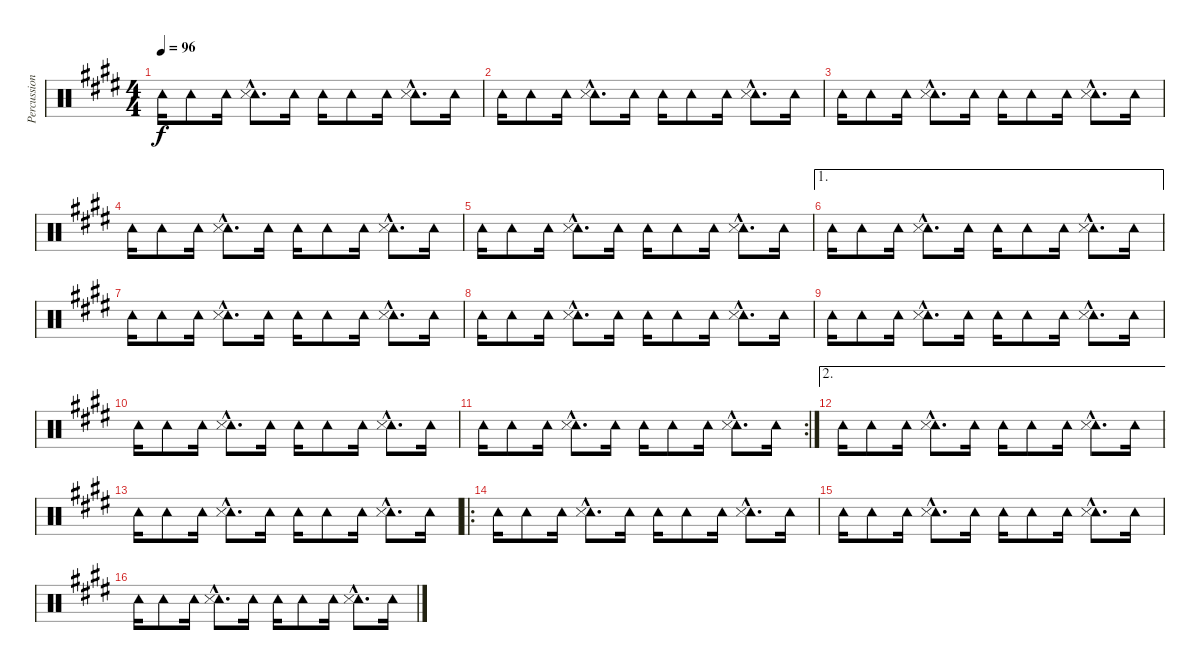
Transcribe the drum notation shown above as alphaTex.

\track ("Percussions" "Percussion") {instrument percussion}
\staff {score}
\articulation defaults
\ts (4 4)
\tempo 96
\clef neutral
\ks e "Tambourine (hit)".16{dy f} "Tambourine (hit)".8 "Tambourine (hit)".16
("Tambourine (hit)"{hac} "Snare (side stick) 3"{hac}).8{d} "Tambourine (hit)".16 "Tambourine (hit)".16 "Tambourine (hit)".8 "Tambourine (hit)".16 ("Tambourine (hit)"{hac} "Snare (side stick) 3"{hac}).8{d} "Tambourine (hit)".16 |
"Tambourine (hit)".16 "Tambourine (hit)".8 "Tambourine (hit)".16 ("Tambourine (hit)"{hac} "Snare (side stick) 3"{hac}).8{d} "Tambourine (hit)".16 "Tambourine (hit)".16 "Tambourine (hit)".8 "Tambourine (hit)".16 ("Tambourine (hit)"{hac} "Snare (side stick) 3"{hac}).8{d} "Tambourine (hit)".16 |
"Tambourine (hit)".16 "Tambourine (hit)".8 "Tambourine (hit)".16 ("Tambourine (hit)"{hac} "Snare (side stick) 3"{hac}).8{d} "Tambourine (hit)".16 "Tambourine (hit)".16 "Tambourine (hit)".8 "Tambourine (hit)".16 ("Tambourine (hit)"{hac} "Snare (side stick) 3"{hac}).8{d} "Tambourine (hit)".16 |
"Tambourine (hit)".16 "Tambourine (hit)".8 "Tambourine (hit)".16 ("Tambourine (hit)"{hac} "Snare (side stick) 3"{hac}).8{d} "Tambourine (hit)".16 "Tambourine (hit)".16 "Tambourine (hit)".8 "Tambourine (hit)".16 ("Tambourine (hit)"{hac} "Snare (side stick) 3"{hac}).8{d} "Tambourine (hit)".16 |
"Tambourine (hit)".16 "Tambourine (hit)".8 "Tambourine (hit)".16 ("Tambourine (hit)"{hac} "Snare (side stick) 3"{hac}).8{d} "Tambourine (hit)".16 "Tambourine (hit)".16 "Tambourine (hit)".8 "Tambourine (hit)".16 ("Tambourine (hit)"{hac} "Snare (side stick) 3"{hac}).8{d} "Tambourine (hit)".16 |
\ae 1 "Tambourine (hit)".16 "Tambourine (hit)".8 "Tambourine (hit)".16
("Tambourine (hit)"{hac} "Snare (side stick) 3"{hac}).8{d} "Tambourine (hit)".16 "Tambourine (hit)".16 "Tambourine (hit)".8 "Tambourine (hit)".16 ("Tambourine (hit)"{hac} "Snare (side stick) 3"{hac}).8{d} "Tambourine (hit)".16 |
"Tambourine (hit)".16 "Tambourine (hit)".8 "Tambourine (hit)".16 ("Tambourine (hit)"{hac} "Snare (side stick) 3"{hac}).8{d} "Tambourine (hit)".16 "Tambourine (hit)".16 "Tambourine (hit)".8 "Tambourine (hit)".16 ("Tambourine (hit)"{hac} "Snare (side stick) 3"{hac}).8{d} "Tambourine (hit)".16 |
"Tambourine (hit)".16 "Tambourine (hit)".8 "Tambourine (hit)".16 ("Tambourine (hit)"{hac} "Snare (side stick) 3"{hac}).8{d} "Tambourine (hit)".16 "Tambourine (hit)".16 "Tambourine (hit)".8 "Tambourine (hit)".16 ("Tambourine (hit)"{hac} "Snare (side stick) 3"{hac}).8{d} "Tambourine (hit)".16 |
"Tambourine (hit)".16 "Tambourine (hit)".8 "Tambourine (hit)".16 ("Tambourine (hit)"{hac} "Snare (side stick) 3"{hac}).8{d} "Tambourine (hit)".16 "Tambourine (hit)".16 "Tambourine (hit)".8 "Tambourine (hit)".16 ("Tambourine (hit)"{hac} "Snare (side stick) 3"{hac}).8{d} "Tambourine (hit)".16 |
"Tambourine (hit)".16 "Tambourine (hit)".8 "Tambourine (hit)".16 ("Tambourine (hit)"{hac} "Snare (side stick) 3"{hac}).8{d} "Tambourine (hit)".16 "Tambourine (hit)".16 "Tambourine (hit)".8 "Tambourine (hit)".16 ("Tambourine (hit)"{hac} "Snare (side stick) 3"{hac}).8{d} "Tambourine (hit)".16 |
\rc 2 "Tambourine (hit)".16 "Tambourine (hit)".8 "Tambourine (hit)".16
("Tambourine (hit)"{hac} "Snare (side stick) 3"{hac}).8{d} "Tambourine (hit)".16 "Tambourine (hit)".16 "Tambourine (hit)".8 "Tambourine (hit)".16 ("Tambourine (hit)"{hac} "Snare (side stick) 3"{hac}).8{d} "Tambourine (hit)".16 |
\ae 2 "Tambourine (hit)".16 "Tambourine (hit)".8 "Tambourine (hit)".16
("Tambourine (hit)"{hac} "Snare (side stick) 3"{hac}).8{d} "Tambourine (hit)".16 "Tambourine (hit)".16 "Tambourine (hit)".8 "Tambourine (hit)".16 ("Tambourine (hit)"{hac} "Snare (side stick) 3"{hac}).8{d} "Tambourine (hit)".16 |
"Tambourine (hit)".16 "Tambourine (hit)".8 "Tambourine (hit)".16 ("Tambourine (hit)"{hac} "Snare (side stick) 3"{hac}).8{d} "Tambourine (hit)".16 "Tambourine (hit)".16 "Tambourine (hit)".8 "Tambourine (hit)".16 ("Tambourine (hit)"{hac} "Snare (side stick) 3"{hac}).8{d} "Tambourine (hit)".16 |
\ro "Tambourine (hit)".16 "Tambourine (hit)".8 "Tambourine (hit)".16
("Tambourine (hit)"{hac} "Snare (side stick) 3"{hac}).8{d} "Tambourine (hit)".16 "Tambourine (hit)".16 "Tambourine (hit)".8 "Tambourine (hit)".16 ("Tambourine (hit)"{hac} "Snare (side stick) 3"{hac}).8{d} "Tambourine (hit)".16 |
"Tambourine (hit)".16 "Tambourine (hit)".8 "Tambourine (hit)".16 ("Tambourine (hit)"{hac} "Snare (side stick) 3"{hac}).8{d} "Tambourine (hit)".16 "Tambourine (hit)".16 "Tambourine (hit)".8 "Tambourine (hit)".16 ("Tambourine (hit)"{hac} "Snare (side stick) 3"{hac}).8{d} "Tambourine (hit)".16 |
"Tambourine (hit)".16 "Tambourine (hit)".8 "Tambourine (hit)".16 ("Tambourine (hit)"{hac} "Snare (side stick) 3"{hac}).8{d} "Tambourine (hit)".16 "Tambourine (hit)".16 "Tambourine (hit)".8 "Tambourine (hit)".16 ("Tambourine (hit)"{hac} "Snare (side stick) 3"{hac}).8{d} "Tambourine (hit)".16
